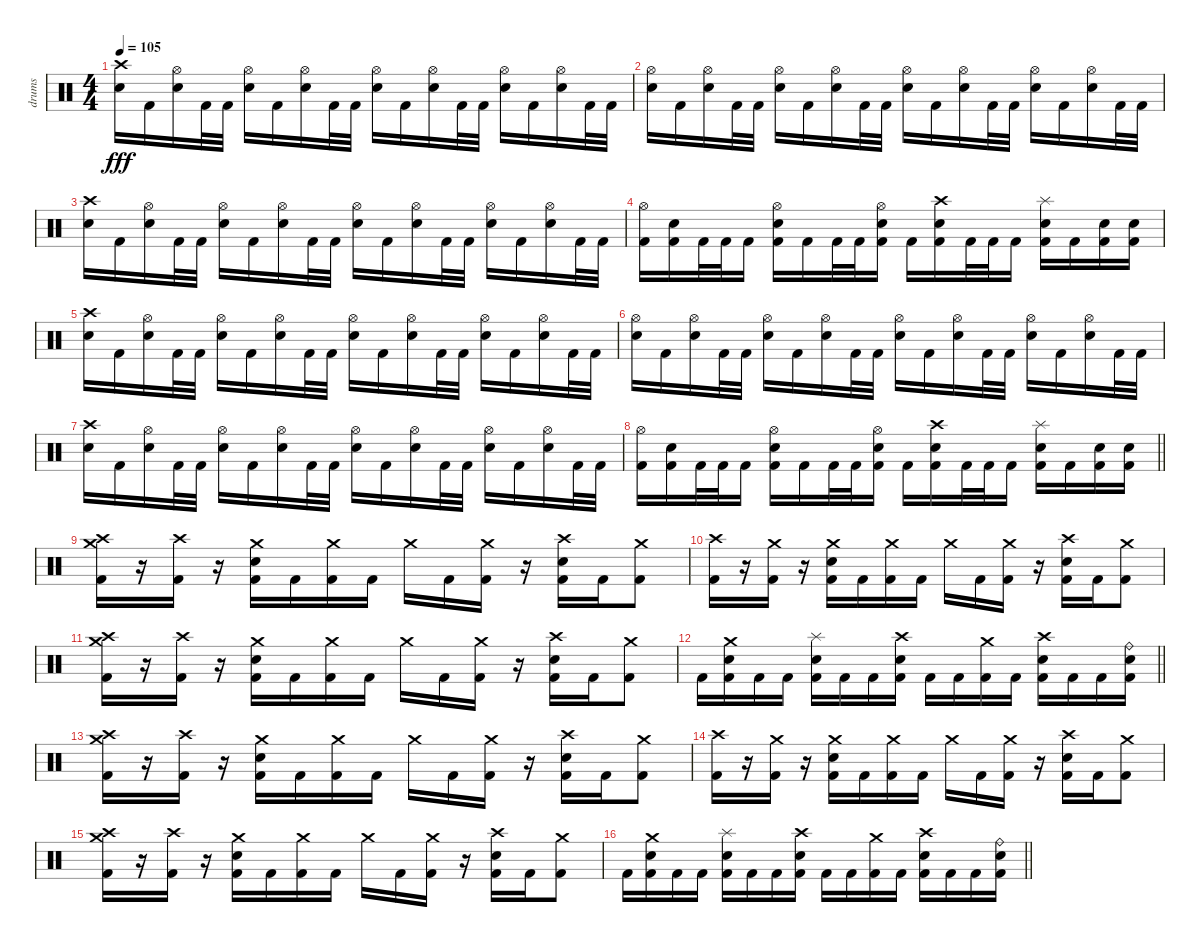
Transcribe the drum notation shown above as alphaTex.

\track ("drums" "drums") {instrument percussion}
\staff {score}
\articulation defaults
\ts (4 4)
\section ("" "")
\tempo 105
\clef neutral
\ks c
("Crash high (hit)" "Electric Snare (hit)").16{dy fff} "Kick (hit) 2".16 ("Hi-Hat (open)" "Electric Snare (hit)").16 "Kick (hit) 2".32 "Kick (hit) 2".32 ("Hi-Hat (open)" "Electric Snare (hit)").16 "Kick (hit) 2".16 ("Hi-Hat (open)" "Electric Snare (hit)").16 "Kick (hit) 2".32 "Kick (hit) 2".32 ("Hi-Hat (open)" "Electric Snare (hit)").16 "Kick (hit) 2".16 ("Hi-Hat (open)" "Electric Snare (hit)").16 "Kick (hit) 2".32 "Kick (hit) 2".32 ("Hi-Hat (open)" "Electric Snare (hit)").16 "Kick (hit) 2".16 ("Hi-Hat (open)" "Electric Snare (hit)").16 "Kick (hit) 2".32 "Kick (hit) 2".32 |
("Hi-Hat (open)" "Electric Snare (hit)").16 "Kick (hit) 2".16 ("Hi-Hat (open)" "Electric Snare (hit)").16 "Kick (hit) 2".32 "Kick (hit) 2".32 ("Hi-Hat (open)" "Electric Snare (hit)").16 "Kick (hit) 2".16 ("Hi-Hat (open)" "Electric Snare (hit)").16 "Kick (hit) 2".32 "Kick (hit) 2".32 ("Hi-Hat (open)" "Electric Snare (hit)").16 "Kick (hit) 2".16 ("Hi-Hat (open)" "Electric Snare (hit)").16 "Kick (hit) 2".32 "Kick (hit) 2".32 ("Hi-Hat (open)" "Electric Snare (hit)").16 "Kick (hit) 2".16 ("Hi-Hat (open)" "Electric Snare (hit)").16 "Kick (hit) 2".32 "Kick (hit) 2".32 |
("Crash high (hit)" "Electric Snare (hit)").16 "Kick (hit) 2".16 ("Hi-Hat (open)" "Electric Snare (hit)").16 "Kick (hit) 2".32 "Kick (hit) 2".32 ("Hi-Hat (open)" "Electric Snare (hit)").16 "Kick (hit) 2".16 ("Hi-Hat (open)" "Electric Snare (hit)").16 "Kick (hit) 2".32 "Kick (hit) 2".32 ("Hi-Hat (open)" "Electric Snare (hit)").16 "Kick (hit) 2".16 ("Hi-Hat (open)" "Electric Snare (hit)").16 "Kick (hit) 2".32 "Kick (hit) 2".32 ("Hi-Hat (open)" "Electric Snare (hit)").16 "Kick (hit) 2".16 ("Hi-Hat (open)" "Electric Snare (hit)").16 "Kick (hit) 2".32 "Kick (hit) 2".32 |
("Hi-Hat (open)" "Kick (hit) 2").16 ("Electric Snare (hit)" "Kick (hit) 2").16 "Kick (hit) 2".32 "Kick (hit) 2".32 "Kick (hit) 2".16 ("Hi-Hat (open)" "Electric Snare (hit)" "Kick (hit) 2").16 "Kick (hit) 2".16 "Kick (hit) 2".32 "Kick (hit) 2".32 ("Hi-Hat (open)" "Electric Snare (hit)" "Kick (hit) 2").16 "Kick (hit) 2".16 ("Crash high (hit)" "Electric Snare (hit)" "Kick (hit) 2").16 "Kick (hit) 2".32 "Kick (hit) 2".32 "Kick (hit) 2".16 ("Splash (hit)" "Electric Snare (hit)" "Kick (hit) 2").16 "Kick (hit) 2".16 ("Electric Snare (hit)" "Kick (hit) 2").16 ("Electric Snare (hit)" "Kick (hit) 2").16 |
("Crash high (hit)" "Electric Snare (hit)").16 "Kick (hit) 2".16 ("Hi-Hat (open)" "Electric Snare (hit)").16 "Kick (hit) 2".32 "Kick (hit) 2".32 ("Hi-Hat (open)" "Electric Snare (hit)").16 "Kick (hit) 2".16 ("Hi-Hat (open)" "Electric Snare (hit)").16 "Kick (hit) 2".32 "Kick (hit) 2".32 ("Hi-Hat (open)" "Electric Snare (hit)").16 "Kick (hit) 2".16 ("Hi-Hat (open)" "Electric Snare (hit)").16 "Kick (hit) 2".32 "Kick (hit) 2".32 ("Hi-Hat (open)" "Electric Snare (hit)").16 "Kick (hit) 2".16 ("Hi-Hat (open)" "Electric Snare (hit)").16 "Kick (hit) 2".32 "Kick (hit) 2".32 |
("Hi-Hat (open)" "Electric Snare (hit)").16 "Kick (hit) 2".16 ("Hi-Hat (open)" "Electric Snare (hit)").16 "Kick (hit) 2".32 "Kick (hit) 2".32 ("Hi-Hat (open)" "Electric Snare (hit)").16 "Kick (hit) 2".16 ("Hi-Hat (open)" "Electric Snare (hit)").16 "Kick (hit) 2".32 "Kick (hit) 2".32 ("Hi-Hat (open)" "Electric Snare (hit)").16 "Kick (hit) 2".16 ("Hi-Hat (open)" "Electric Snare (hit)").16 "Kick (hit) 2".32 "Kick (hit) 2".32 ("Hi-Hat (open)" "Electric Snare (hit)").16 "Kick (hit) 2".16 ("Hi-Hat (open)" "Electric Snare (hit)").16 "Kick (hit) 2".32 "Kick (hit) 2".32 |
("Crash high (hit)" "Electric Snare (hit)").16 "Kick (hit) 2".16 ("Hi-Hat (open)" "Electric Snare (hit)").16 "Kick (hit) 2".32 "Kick (hit) 2".32 ("Hi-Hat (open)" "Electric Snare (hit)").16 "Kick (hit) 2".16 ("Hi-Hat (open)" "Electric Snare (hit)").16 "Kick (hit) 2".32 "Kick (hit) 2".32 ("Hi-Hat (open)" "Electric Snare (hit)").16 "Kick (hit) 2".16 ("Hi-Hat (open)" "Electric Snare (hit)").16 "Kick (hit) 2".32 "Kick (hit) 2".32 ("Hi-Hat (open)" "Electric Snare (hit)").16 "Kick (hit) 2".16 ("Hi-Hat (open)" "Electric Snare (hit)").16 "Kick (hit) 2".32 "Kick (hit) 2".32 |
\barLineRight lightlight
("Hi-Hat (open)" "Kick (hit) 2").16 ("Electric Snare (hit)" "Kick (hit) 2").16 "Kick (hit) 2".32 "Kick (hit) 2".32 "Kick (hit) 2".16 ("Hi-Hat (open)" "Electric Snare (hit)" "Kick (hit) 2").16 "Kick (hit) 2".16 "Kick (hit) 2".32 "Kick (hit) 2".32 ("Hi-Hat (open)" "Electric Snare (hit)" "Kick (hit) 2").16 "Kick (hit) 2".16 ("Crash high (hit)" "Electric Snare (hit)" "Kick (hit) 2").16 "Kick (hit) 2".32 "Kick (hit) 2".32 "Kick (hit) 2".16 ("Splash (hit)" "Electric Snare (hit)" "Kick (hit) 2").16 "Kick (hit) 2".16 ("Electric Snare (hit)" "Kick (hit) 2").16 ("Electric Snare (hit)" "Kick (hit) 2").16 |
\section ("" "")
("Crash medium (hit)" "Crash high (hit)" "Kick (hit) 2").16 r.16 ("Crash high (hit)" "Kick (hit) 2").16 r.16 ("Crash medium (hit)" "Electric Snare (hit)" "Kick (hit) 2").16 "Kick (hit) 2".16 ("Crash medium (hit)" "Kick (hit) 2").16 "Kick (hit) 2".16 "Crash medium (hit)".16 "Kick (hit) 2".16 ("Crash medium (hit)" "Kick (hit) 2").16 r.16 ("Crash high (hit)" "Electric Snare (hit)" "Kick (hit) 2").16 "Kick (hit) 2".16 ("Crash medium (hit)" "Kick (hit) 2").8 |
("Crash high (hit)" "Kick (hit) 2").16 r.16 ("Crash medium (hit)" "Kick (hit) 2").16 r.16 ("Crash medium (hit)" "Electric Snare (hit)" "Kick (hit) 2").16 "Kick (hit) 2".16 ("Crash medium (hit)" "Kick (hit) 2").16 "Kick (hit) 2".16 "Crash medium (hit)".16 "Kick (hit) 2".16 ("Crash medium (hit)" "Kick (hit) 2").16 r.16 ("Crash high (hit)" "Electric Snare (hit)" "Kick (hit) 2").16 "Kick (hit) 2".16 ("Crash medium (hit)" "Kick (hit) 2").8 |
("Crash medium (hit)" "Crash high (hit)" "Kick (hit) 2").16 r.16 ("Crash high (hit)" "Kick (hit) 2").16 r.16 ("Crash medium (hit)" "Electric Snare (hit)" "Kick (hit) 2").16 "Kick (hit) 2".16 ("Crash medium (hit)" "Kick (hit) 2").16 "Kick (hit) 2".16 "Crash medium (hit)".16 "Kick (hit) 2".16 ("Crash medium (hit)" "Kick (hit) 2").16 r.16 ("Crash high (hit)" "Electric Snare (hit)" "Kick (hit) 2").16 "Kick (hit) 2".16 ("Crash medium (hit)" "Kick (hit) 2").8 |
\barLineRight lightlight "Kick (hit) 2".16
("Crash medium (hit)" "Electric Snare (hit)" "Kick (hit) 2").16 "Kick (hit) 2".16 "Kick (hit) 2".16 ("Splash (hit)" "Electric Snare (hit)" "Kick (hit) 2").16 "Kick (hit) 2".16 "Kick (hit) 2".16 ("Crash high (hit)" "Electric Snare (hit)" "Kick (hit) 2").16 "Kick (hit) 2".16 "Kick (hit) 2".16 ("Crash medium (hit)" "Kick (hit) 2").16 "Kick (hit) 2".16 ("Crash high (hit)" "Electric Snare (hit)" "Kick (hit) 2").16 "Kick (hit) 2".16 "Kick (hit) 2".16 ("Ride (bell)" "Electric Snare (hit)" "Kick (hit) 2").16 |
("Crash medium (hit)" "Crash high (hit)" "Kick (hit) 2").16 r.16 ("Crash high (hit)" "Kick (hit) 2").16 r.16 ("Crash medium (hit)" "Electric Snare (hit)" "Kick (hit) 2").16 "Kick (hit) 2".16 ("Crash medium (hit)" "Kick (hit) 2").16 "Kick (hit) 2".16 "Crash medium (hit)".16 "Kick (hit) 2".16 ("Crash medium (hit)" "Kick (hit) 2").16 r.16 ("Crash high (hit)" "Electric Snare (hit)" "Kick (hit) 2").16 "Kick (hit) 2".16 ("Crash medium (hit)" "Kick (hit) 2").8 |
("Crash high (hit)" "Kick (hit) 2").16 r.16 ("Crash medium (hit)" "Kick (hit) 2").16 r.16 ("Crash medium (hit)" "Electric Snare (hit)" "Kick (hit) 2").16 "Kick (hit) 2".16 ("Crash medium (hit)" "Kick (hit) 2").16 "Kick (hit) 2".16 "Crash medium (hit)".16 "Kick (hit) 2".16 ("Crash medium (hit)" "Kick (hit) 2").16 r.16 ("Crash high (hit)" "Electric Snare (hit)" "Kick (hit) 2").16 "Kick (hit) 2".16 ("Crash medium (hit)" "Kick (hit) 2").8 |
("Crash medium (hit)" "Crash high (hit)" "Kick (hit) 2").16 r.16 ("Crash high (hit)" "Kick (hit) 2").16 r.16 ("Crash medium (hit)" "Electric Snare (hit)" "Kick (hit) 2").16 "Kick (hit) 2".16 ("Crash medium (hit)" "Kick (hit) 2").16 "Kick (hit) 2".16 "Crash medium (hit)".16 "Kick (hit) 2".16 ("Crash medium (hit)" "Kick (hit) 2").16 r.16 ("Crash high (hit)" "Electric Snare (hit)" "Kick (hit) 2").16 "Kick (hit) 2".16 ("Crash medium (hit)" "Kick (hit) 2").8 |
\barLineRight lightlight "Kick (hit) 2".16
("Crash medium (hit)" "Electric Snare (hit)" "Kick (hit) 2").16 "Kick (hit) 2".16 "Kick (hit) 2".16 ("Splash (hit)" "Electric Snare (hit)" "Kick (hit) 2").16 "Kick (hit) 2".16 "Kick (hit) 2".16 ("Crash high (hit)" "Electric Snare (hit)" "Kick (hit) 2").16 "Kick (hit) 2".16 "Kick (hit) 2".16 ("Crash medium (hit)" "Kick (hit) 2").16 "Kick (hit) 2".16 ("Crash high (hit)" "Electric Snare (hit)" "Kick (hit) 2").16 "Kick (hit) 2".16 "Kick (hit) 2".16 ("Ride (bell)" "Electric Snare (hit)" "Kick (hit) 2").16
